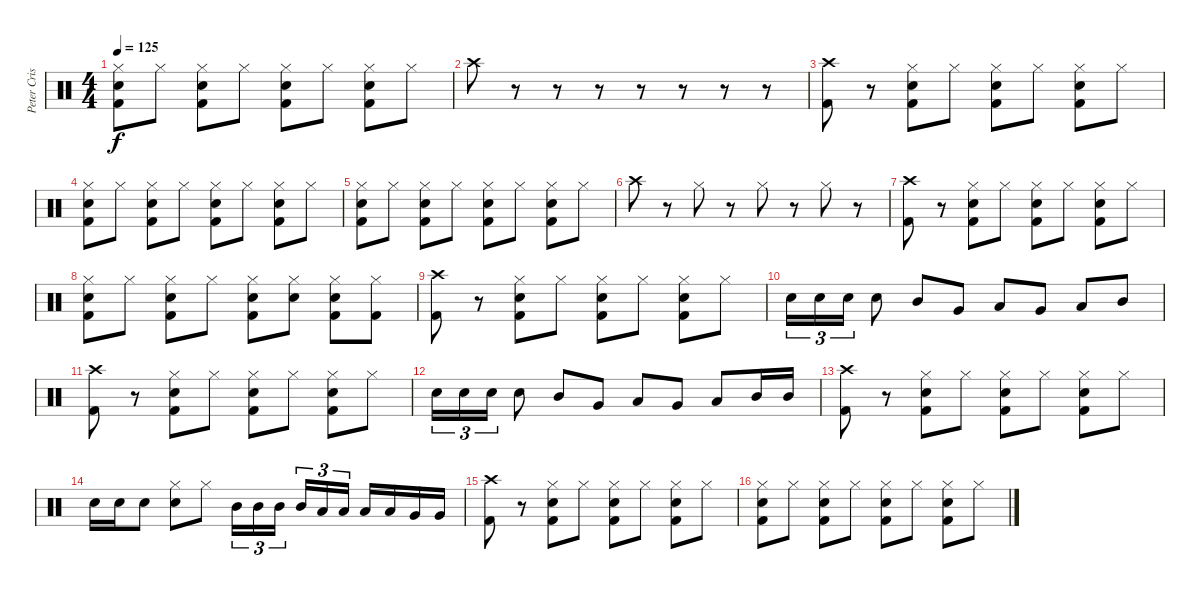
\track ("Peter Criss" "Peter Cris") {instrument percussion}
\staff {score}
\articulation defaults
\ts (4 4)
\tempo 125
\clef neutral
\ks c
("Hi-Hat (closed)" "Electric Snare (hit)" "Kick (hit) 2").8{dy f} "Hi-Hat (closed)".8 ("Hi-Hat (closed)" "Electric Snare (hit)" "Kick (hit) 2").8 "Hi-Hat (closed)".8 ("Hi-Hat (closed)" "Electric Snare (hit)" "Kick (hit) 2").8 "Hi-Hat (closed)".8 ("Hi-Hat (closed)" "Electric Snare (hit)" "Kick (hit) 2").8 "Hi-Hat (closed)".8 |
"Crash high (hit)".8 r.8 r.8 r.8 r.8 r.8 r.8 r.8 |
("Crash high (hit)" "Kick (hit) 2").8 r.8 ("Hi-Hat (closed)" "Electric Snare (hit)" "Kick (hit) 2").8 "Hi-Hat (closed)".8 ("Hi-Hat (closed)" "Electric Snare (hit)" "Kick (hit) 2").8 "Hi-Hat (closed)".8 ("Hi-Hat (closed)" "Electric Snare (hit)" "Kick (hit) 2").8 "Hi-Hat (closed)".8 |
("Hi-Hat (closed)" "Electric Snare (hit)" "Kick (hit) 2").8 "Hi-Hat (closed)".8 ("Hi-Hat (closed)" "Electric Snare (hit)" "Kick (hit) 2").8 "Hi-Hat (closed)".8 ("Hi-Hat (closed)" "Electric Snare (hit)" "Kick (hit) 2").8 "Hi-Hat (closed)".8 ("Hi-Hat (closed)" "Electric Snare (hit)" "Kick (hit) 2").8 "Hi-Hat (closed)".8 |
("Hi-Hat (closed)" "Electric Snare (hit)" "Kick (hit) 2").8 "Hi-Hat (closed)".8 ("Hi-Hat (closed)" "Electric Snare (hit)" "Kick (hit) 2").8 "Hi-Hat (closed)".8 ("Hi-Hat (closed)" "Electric Snare (hit)" "Kick (hit) 2").8 "Hi-Hat (closed)".8 ("Hi-Hat (closed)" "Electric Snare (hit)" "Kick (hit) 2").8 "Hi-Hat (closed)".8 |
"Crash high (hit)".8 r.8 "Hi-Hat (closed)".8 r.8 "Hi-Hat (closed)".8 r.8 "Hi-Hat (closed)".8 r.8 |
("Crash high (hit)" "Kick (hit) 2").8 r.8 ("Hi-Hat (closed)" "Electric Snare (hit)" "Kick (hit) 2").8 "Hi-Hat (closed)".8 ("Hi-Hat (closed)" "Electric Snare (hit)" "Kick (hit) 2").8 "Hi-Hat (closed)".8 ("Hi-Hat (closed)" "Electric Snare (hit)" "Kick (hit) 2").8 "Hi-Hat (closed)".8 |
("Hi-Hat (closed)" "Electric Snare (hit)" "Kick (hit) 2").8 "Hi-Hat (closed)".8 ("Hi-Hat (closed)" "Electric Snare (hit)" "Kick (hit) 2").8 "Hi-Hat (closed)".8 ("Hi-Hat (closed)" "Electric Snare (hit)" "Kick (hit) 2").8 ("Hi-Hat (closed)" "Electric Snare (hit)").8 ("Hi-Hat (closed)" "Electric Snare (hit)" "Kick (hit) 2").8 ("Hi-Hat (closed)" "Kick (hit) 2").8 |
("Crash high (hit)" "Kick (hit) 2").8 r.8 ("Hi-Hat (closed)" "Electric Snare (hit)" "Kick (hit) 2").8 "Hi-Hat (closed)".8 ("Hi-Hat (closed)" "Electric Snare (hit)" "Kick (hit) 2").8 "Hi-Hat (closed)".8 ("Hi-Hat (closed)" "Electric Snare (hit)" "Kick (hit) 2").8 "Hi-Hat (closed)".8 |
"Electric Snare (hit)".16{tu (3 2)} "Electric Snare (hit)".16{tu (3 2)} "Electric Snare (hit)".16{tu (3 2)} "Electric Snare (hit)".8 "Mid Tom (hit)".8 "Very Low Tom (hit)".8 "Low Tom (hit)".8 "Very Low Tom (hit)".8 "Low Tom (hit)".8 "Mid Tom (hit)".8 |
("Crash high (hit)" "Kick (hit) 2").8 r.8 ("Hi-Hat (closed)" "Electric Snare (hit)" "Kick (hit) 2").8 "Hi-Hat (closed)".8 ("Hi-Hat (closed)" "Electric Snare (hit)" "Kick (hit) 2").8 "Hi-Hat (closed)".8 ("Hi-Hat (closed)" "Electric Snare (hit)" "Kick (hit) 2").8 "Hi-Hat (closed)".8 |
"Electric Snare (hit)".16{tu (3 2)} "Electric Snare (hit)".16{tu (3 2)} "Electric Snare (hit)".16{tu (3 2)} "Electric Snare (hit)".8 "Mid Tom (hit)".8 "Very Low Tom (hit)".8 "Low Tom (hit)".8 "Very Low Tom (hit)".8 "Low Tom (hit)".8 "Mid Tom (hit)".16 "Mid Tom (hit)".16 |
("Crash high (hit)" "Kick (hit) 2").8 r.8 ("Hi-Hat (closed)" "Electric Snare (hit)" "Kick (hit) 2").8 "Hi-Hat (closed)".8 ("Hi-Hat (closed)" "Electric Snare (hit)" "Kick (hit) 2").8 "Hi-Hat (closed)".8 ("Hi-Hat (closed)" "Electric Snare (hit)" "Kick (hit) 2").8 "Hi-Hat (closed)".8 |
"Electric Snare (hit)".16 "Electric Snare (hit)".16 "Electric Snare (hit)".8 ("Hi-Hat (closed)" "Electric Snare (hit)").8 "Hi-Hat (closed)".8 "Mid Tom (hit)".16{tu (3 2)} "Mid Tom (hit)".16{tu (3 2)} "Mid Tom (hit)".16{tu (3 2)} "Mid Tom (hit)".16{tu (3 2)} "Low Tom (hit)".16{tu (3 2)} "Low Tom (hit)".16{tu (3 2)} "Low Tom (hit)".16 "Low Tom (hit)".16 "Very Low Tom (hit)".16 "Very Low Tom (hit)".16 |
("Crash high (hit)" "Kick (hit) 2").8 r.8 ("Hi-Hat (closed)" "Electric Snare (hit)" "Kick (hit) 2").8 "Hi-Hat (closed)".8 ("Hi-Hat (closed)" "Electric Snare (hit)" "Kick (hit) 2").8 "Hi-Hat (closed)".8 ("Hi-Hat (closed)" "Electric Snare (hit)" "Kick (hit) 2").8 "Hi-Hat (closed)".8 |
("Hi-Hat (closed)" "Electric Snare (hit)" "Kick (hit) 2").8 "Hi-Hat (closed)".8 ("Hi-Hat (closed)" "Electric Snare (hit)" "Kick (hit) 2").8 "Hi-Hat (closed)".8 ("Hi-Hat (closed)" "Electric Snare (hit)" "Kick (hit) 2").8 "Hi-Hat (closed)".8 ("Hi-Hat (closed)" "Electric Snare (hit)" "Kick (hit) 2").8 "Hi-Hat (closed)".8
